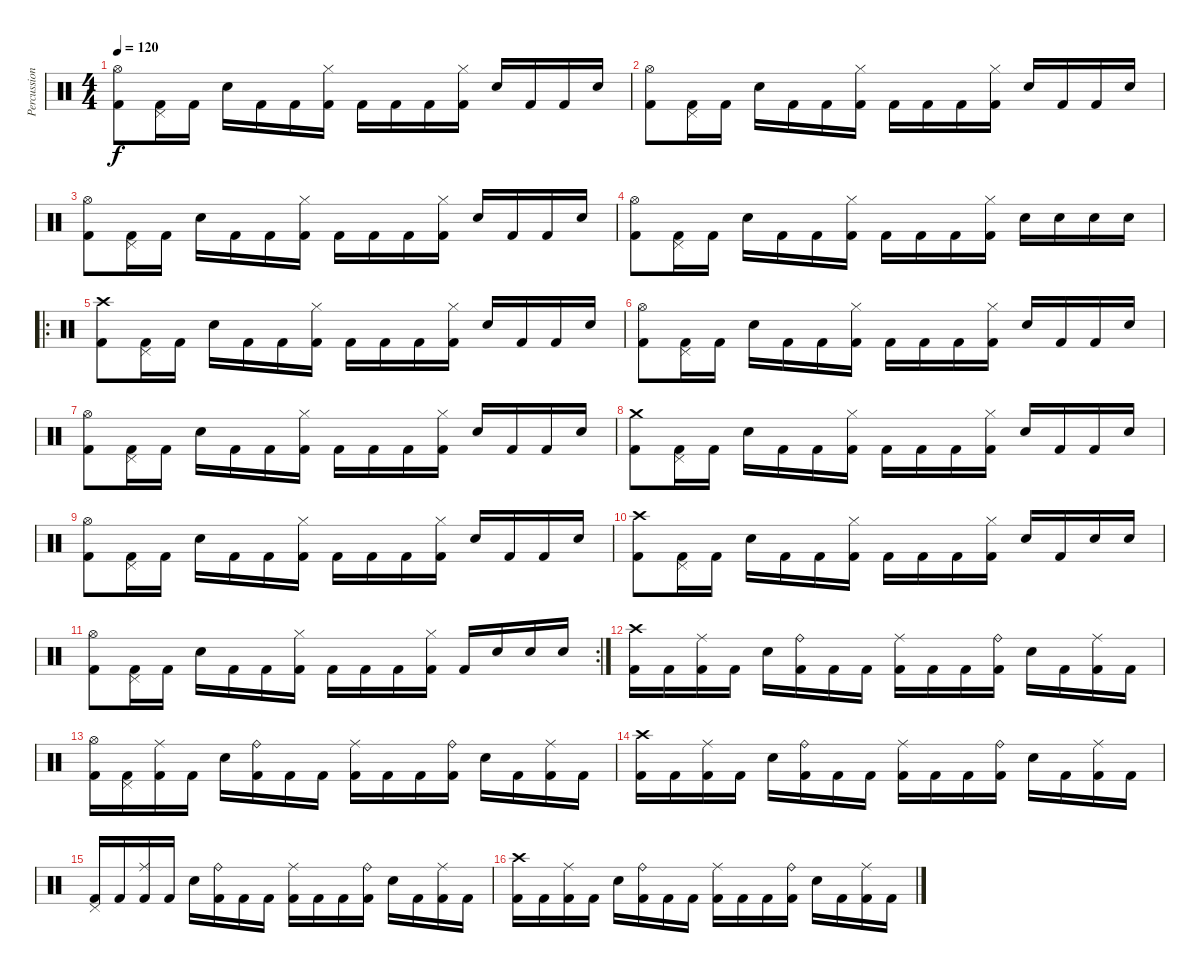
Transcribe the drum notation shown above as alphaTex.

\track ("Percussioni" "Percussion") {instrument percussion}
\staff {score}
\articulation defaults
\ts (4 4)
\tempo 120
\clef neutral
\ks c
("Hi-Hat (open)" "Kick (hit) 2").8{dy f} ("Pedal Hi-Hat (hit)" "Kick (hit) 2").16 "Kick (hit) 2".16 "Electric Snare (hit)".16 "Kick (hit) 2".16 "Kick (hit) 2".16 ("Hi-Hat (closed)" "Kick (hit) 2").16 "Kick (hit) 2".16 "Kick (hit) 2".16 "Kick (hit) 2".16 ("Hi-Hat (closed)" "Kick (hit) 2").16 "Electric Snare (hit)".16 "Kick (hit) 2".16 "Kick (hit) 2".16 "Electric Snare (hit)".16 |
("Hi-Hat (open)" "Kick (hit) 2").8 ("Pedal Hi-Hat (hit)" "Kick (hit) 2").16 "Kick (hit) 2".16 "Electric Snare (hit)".16 "Kick (hit) 2".16 "Kick (hit) 2".16 ("Hi-Hat (closed)" "Kick (hit) 2").16 "Kick (hit) 2".16 "Kick (hit) 2".16 "Kick (hit) 2".16 ("Hi-Hat (closed)" "Kick (hit) 2").16 "Electric Snare (hit)".16 "Kick (hit) 2".16 "Kick (hit) 2".16 "Electric Snare (hit)".16 |
("Hi-Hat (open)" "Kick (hit) 2").8 ("Pedal Hi-Hat (hit)" "Kick (hit) 2").16 "Kick (hit) 2".16 "Electric Snare (hit)".16 "Kick (hit) 2".16 "Kick (hit) 2".16 ("Hi-Hat (closed)" "Kick (hit) 2").16 "Kick (hit) 2".16 "Kick (hit) 2".16 "Kick (hit) 2".16 ("Hi-Hat (closed)" "Kick (hit) 2").16 "Electric Snare (hit)".16 "Kick (hit) 2".16 "Kick (hit) 2".16 "Electric Snare (hit)".16 |
("Hi-Hat (open)" "Kick (hit) 2").8 ("Pedal Hi-Hat (hit)" "Kick (hit) 2").16 "Kick (hit) 2".16 "Electric Snare (hit)".16 "Kick (hit) 2".16 "Kick (hit) 2".16 ("Hi-Hat (closed)" "Kick (hit) 2").16 "Kick (hit) 2".16 "Kick (hit) 2".16 "Kick (hit) 2".16 ("Hi-Hat (closed)" "Kick (hit) 2").16 "Electric Snare (hit)".16 "Electric Snare (hit)".16 "Electric Snare (hit)".16 "Electric Snare (hit)".16 |
\ro
("Crash high (hit)" "Kick (hit) 2").8 ("Pedal Hi-Hat (hit)" "Kick (hit) 2").16 "Kick (hit) 2".16 "Electric Snare (hit)".16 "Kick (hit) 2".16 "Kick (hit) 2".16 ("Hi-Hat (closed)" "Kick (hit) 2").16 "Kick (hit) 2".16 "Kick (hit) 2".16 "Kick (hit) 2".16 ("Hi-Hat (closed)" "Kick (hit) 2").16 "Electric Snare (hit)".16 "Kick (hit) 2".16 "Kick (hit) 2".16 "Electric Snare (hit)".16 |
("Hi-Hat (open)" "Kick (hit) 2").8 ("Pedal Hi-Hat (hit)" "Kick (hit) 2").16 "Kick (hit) 2".16 "Electric Snare (hit)".16 "Kick (hit) 2".16 "Kick (hit) 2".16 ("Hi-Hat (closed)" "Kick (hit) 2").16 "Kick (hit) 2".16 "Kick (hit) 2".16 "Kick (hit) 2".16 ("Hi-Hat (closed)" "Kick (hit) 2").16 "Electric Snare (hit)".16 "Kick (hit) 2".16 "Kick (hit) 2".16 "Electric Snare (hit)".16 |
("Hi-Hat (open)" "Kick (hit) 2").8 ("Pedal Hi-Hat (hit)" "Kick (hit) 2").16 "Kick (hit) 2".16 "Electric Snare (hit)".16 "Kick (hit) 2".16 "Kick (hit) 2".16 ("Hi-Hat (closed)" "Kick (hit) 2").16 "Kick (hit) 2".16 "Kick (hit) 2".16 "Kick (hit) 2".16 ("Hi-Hat (closed)" "Kick (hit) 2").16 "Electric Snare (hit)".16 "Kick (hit) 2".16 "Kick (hit) 2".16 "Electric Snare (hit)".16 |
("Crash medium (hit)" "Kick (hit) 2").8 ("Pedal Hi-Hat (hit)" "Kick (hit) 2").16 "Kick (hit) 2".16 "Electric Snare (hit)".16 "Kick (hit) 2".16 "Kick (hit) 2".16 ("Hi-Hat (closed)" "Kick (hit) 2").16 "Kick (hit) 2".16 "Kick (hit) 2".16 "Kick (hit) 2".16 ("Hi-Hat (closed)" "Kick (hit) 2").16 "Electric Snare (hit)".16 "Kick (hit) 2".16 "Kick (hit) 2".16 "Electric Snare (hit)".16 |
("Hi-Hat (open)" "Kick (hit) 2").8 ("Pedal Hi-Hat (hit)" "Kick (hit) 2").16 "Kick (hit) 2".16 "Electric Snare (hit)".16 "Kick (hit) 2".16 "Kick (hit) 2".16 ("Hi-Hat (closed)" "Kick (hit) 2").16 "Kick (hit) 2".16 "Kick (hit) 2".16 "Kick (hit) 2".16 ("Hi-Hat (closed)" "Kick (hit) 2").16 "Electric Snare (hit)".16 "Kick (hit) 2".16 "Kick (hit) 2".16 "Electric Snare (hit)".16 |
("Crash high (hit)" "Kick (hit) 2").8 ("Pedal Hi-Hat (hit)" "Kick (hit) 2").16 "Kick (hit) 2".16 "Electric Snare (hit)".16 "Kick (hit) 2".16 "Kick (hit) 2".16 ("Hi-Hat (closed)" "Kick (hit) 2").16 "Kick (hit) 2".16 "Kick (hit) 2".16 "Kick (hit) 2".16 ("Hi-Hat (closed)" "Kick (hit) 2").16 "Electric Snare (hit)".16 "Kick (hit) 2".16 "Electric Snare (hit)".16 "Electric Snare (hit)".16 |
\rc 2
("Hi-Hat (open)" "Kick (hit) 2").8 ("Pedal Hi-Hat (hit)" "Kick (hit) 2").16 "Kick (hit) 2".16 "Electric Snare (hit)".16 "Kick (hit) 2".16 "Kick (hit) 2".16 ("Hi-Hat (closed)" "Kick (hit) 2").16 "Kick (hit) 2".16 "Kick (hit) 2".16 "Kick (hit) 2".16 ("Hi-Hat (closed)" "Kick (hit) 2").16 "Kick (hit) 2".16 "Electric Snare (hit)".16 "Electric Snare (hit)".16 "Electric Snare (hit)".16 |
("Crash high (hit)" "Kick (hit) 2").16 "Kick (hit) 2".16 ("Ride (middle)" "Kick (hit) 2").16 "Kick (hit) 2".16 "Electric Snare (hit)".16 ("Ride (bell)" "Kick (hit) 2").16 "Kick (hit) 2".16 "Kick (hit) 2".16 ("Ride (middle)" "Kick (hit) 2").16 "Kick (hit) 2".16 "Kick (hit) 2".16 ("Ride (bell)" "Kick (hit) 2").16 "Electric Snare (hit)".16 "Kick (hit) 2".16 ("Ride (middle)" "Kick (hit) 2").16 "Kick (hit) 2".16 |
("Hi-Hat (open)" "Kick (hit) 2").16 ("Pedal Hi-Hat (hit)" "Kick (hit) 2").16 ("Ride (middle)" "Kick (hit) 2").16 "Kick (hit) 2".16 "Electric Snare (hit)".16 ("Ride (bell)" "Kick (hit) 2").16 "Kick (hit) 2".16 "Kick (hit) 2".16 ("Ride (middle)" "Kick (hit) 2").16 "Kick (hit) 2".16 "Kick (hit) 2".16 ("Ride (bell)" "Kick (hit) 2").16 "Electric Snare (hit)".16 "Kick (hit) 2".16 ("Ride (middle)" "Kick (hit) 2").16 "Kick (hit) 2".16 |
("Crash high (hit)" "Kick (hit) 2").16 "Kick (hit) 2".16 ("Ride (middle)" "Kick (hit) 2").16 "Kick (hit) 2".16 "Electric Snare (hit)".16 ("Ride (bell)" "Kick (hit) 2").16 "Kick (hit) 2".16 "Kick (hit) 2".16 ("Ride (middle)" "Kick (hit) 2").16 "Kick (hit) 2".16 "Kick (hit) 2".16 ("Ride (bell)" "Kick (hit) 2").16 "Electric Snare (hit)".16 "Kick (hit) 2".16 ("Ride (middle)" "Kick (hit) 2").16 "Kick (hit) 2".16 |
("Pedal Hi-Hat (hit)" "Kick (hit) 2").16 "Kick (hit) 2".16 ("Ride (middle)" "Kick (hit) 2").16 "Kick (hit) 2".16 "Electric Snare (hit)".16 ("Ride (bell)" "Kick (hit) 2").16 "Kick (hit) 2".16 "Kick (hit) 2".16 ("Ride (middle)" "Kick (hit) 2").16 "Kick (hit) 2".16 "Kick (hit) 2".16 ("Ride (bell)" "Kick (hit) 2").16 "Electric Snare (hit)".16 "Kick (hit) 2".16 ("Ride (middle)" "Kick (hit) 2").16 "Kick (hit) 2".16 |
("Crash high (hit)" "Kick (hit) 2").16 "Kick (hit) 2".16 ("Ride (middle)" "Kick (hit) 2").16 "Kick (hit) 2".16 "Electric Snare (hit)".16 ("Ride (bell)" "Kick (hit) 2").16 "Kick (hit) 2".16 "Kick (hit) 2".16 ("Ride (middle)" "Kick (hit) 2").16 "Kick (hit) 2".16 "Kick (hit) 2".16 ("Ride (bell)" "Kick (hit) 2").16 "Electric Snare (hit)".16 "Kick (hit) 2".16 ("Ride (middle)" "Kick (hit) 2").16 "Kick (hit) 2".16
